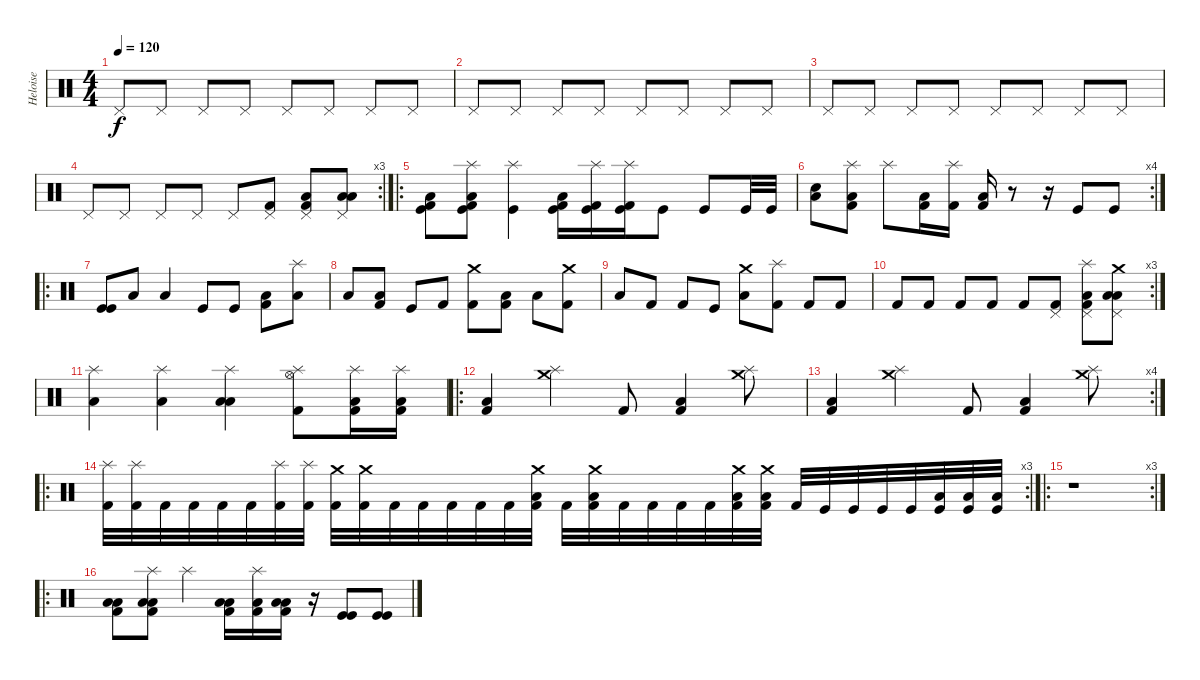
\track ("Heloise" "Heloise") {instrument percussion}
\staff {score}
\articulation defaults
\ts (4 4)
\tempo 120
\clef neutral
\ks c "Pedal Hi-Hat (hit)".8{dy f} "Pedal Hi-Hat (hit)".8 "Pedal Hi-Hat (hit)".8 "Pedal Hi-Hat (hit)".8 "Pedal Hi-Hat (hit)".8 "Pedal Hi-Hat (hit)".8 "Pedal Hi-Hat (hit)".8 "Pedal Hi-Hat (hit)".8
|
"Pedal Hi-Hat (hit)".8 "Pedal Hi-Hat (hit)".8 "Pedal Hi-Hat (hit)".8 "Pedal Hi-Hat (hit)".8 "Pedal Hi-Hat (hit)".8 "Pedal Hi-Hat (hit)".8 "Pedal Hi-Hat (hit)".8 "Pedal Hi-Hat (hit)".8 |
"Pedal Hi-Hat (hit)".8 "Pedal Hi-Hat (hit)".8 "Pedal Hi-Hat (hit)".8 "Pedal Hi-Hat (hit)".8 "Pedal Hi-Hat (hit)".8 "Pedal Hi-Hat (hit)".8 "Pedal Hi-Hat (hit)".8 "Pedal Hi-Hat (hit)".8 |
\rc 3 "Pedal Hi-Hat (hit)".8 "Pedal Hi-Hat (hit)".8 "Pedal Hi-Hat (hit)".8 "Pedal Hi-Hat (hit)".8 "Pedal Hi-Hat (hit)".8
("Kick (hit) 2" "Pedal Hi-Hat (hit)").8 ("Pedal Hi-Hat (hit)" "Low Tom (hit)" "Kick (hit) 2").8 ("Low Tom (hit)" "Low Tom (hit)" "Pedal Hi-Hat (hit)").8 |
\ro
("Low Tom (hit)" "Kick (hit) 2" "Kick (hit)").8 ("Splash (hit)" "Low Tom (hit)" "Kick (hit) 2" "Kick (hit)").8 ("Splash (hit)" "Kick (hit)").4 ("Low Tom (hit)" "Kick (hit) 2" "Kick (hit)").16 ("Splash (hit)" "Kick (hit) 2" "Kick (hit)").16 ("Splash (hit)" "Kick (hit) 2" "Kick (hit)").16 "Kick (hit)".8 "Kick (hit)".8 "Kick (hit)".32 "Kick (hit)".32 |
\rc 4
("Low Tom (hit)" "Snare (hit)").8 ("Splash (hit)" "Low Tom (hit)" "Kick (hit) 2").8 "Splash (hit)".8 ("Low Tom (hit)" "Kick (hit) 2").16 ("Splash (hit)" "Kick (hit) 2").16 ("Low Tom (hit)" "Kick (hit) 2").16 r.8 r.16 "Kick (hit)".8 "Kick (hit)".8 |
\ro
("Kick (hit)" "Kick (hit)").8 "Low Tom (hit)".8 "Low Tom (hit)".4 "Kick (hit)".8 "Kick (hit)".8 ("Kick (hit) 2" "Low Tom (hit)").8 ("Low Tom (hit)" "Splash (hit)").8 |
"Low Tom (hit)".8 ("Low Tom (hit)" "Kick (hit) 2").8 "Kick (hit)".8 "Kick (hit) 2".8 ("Crash medium (hit)" "Kick (hit) 2").8 ("Low Tom (hit)" "Kick (hit) 2").8 "Low Tom (hit)".8 ("Crash medium (hit)" "Kick (hit) 2").8 |
"Low Tom (hit)".8 "Kick (hit) 2".8 "Kick (hit) 2".8 "Kick (hit)".8 ("Low Tom (hit)" "Crash medium (hit)").8 ("Kick (hit) 2" "Splash (hit)").8 "Kick (hit) 2".8 "Kick (hit) 2".8 |
\rc 3 "Kick (hit) 2".8 "Kick (hit) 2".8 "Kick (hit) 2".8 "Kick (hit) 2".8 "Kick (hit) 2".8
("Kick (hit) 2" "Pedal Hi-Hat (hit)").8 ("Splash (hit)" "Pedal Hi-Hat (hit)" "Low Tom (hit)" "Kick (hit) 2").8 ("Crash medium (hit)" "Low Tom (hit)" "Low Tom (hit)" "Pedal Hi-Hat (hit)").8 |
("Splash (hit)" "Low Tom (hit)").4 ("Splash (hit)" "Low Tom (hit)").4 ("Splash (hit)" "Low Tom (hit)" "Low Tom (hit)").4 ("Hi-Hat (open)" "Kick (hit) 2" "Splash (hit)").8 ("Low Tom (hit)" "Kick (hit) 2" "Splash (hit)").16 ("Low Tom (hit)" "Kick (hit) 2" "Splash (hit)").16 |
\ro
("Kick (hit) 2" "Low Tom (hit)").4 ("Splash (hit)" "Crash medium (hit)").4 "Kick (hit) 2".8 ("Kick (hit) 2" "Low Tom (hit)").4 ("Splash (hit)" "Crash medium (hit)").8 |
\rc 4
("Kick (hit) 2" "Low Tom (hit)").4 ("Splash (hit)" "Crash medium (hit)").4 "Kick (hit) 2".8 ("Kick (hit) 2" "Low Tom (hit)").4 ("Splash (hit)" "Crash medium (hit)").8 |
\ro
\rc 3
("Splash (hit)" "Kick (hit) 2").32 ("Splash (hit)" "Kick (hit) 2").32 "Kick (hit) 2".32 "Kick (hit) 2".32 "Kick (hit) 2".32 "Kick (hit) 2".32 ("Splash (hit)" "Kick (hit) 2").32 ("Splash (hit)" "Kick (hit) 2").32 ("Crash medium (hit)" "Kick (hit) 2").32 ("Crash medium (hit)" "Kick (hit) 2").32 "Kick (hit) 2".32 "Kick (hit) 2".32 "Kick (hit) 2".32 "Kick (hit) 2".32 "Kick (hit) 2".32 ("Crash medium (hit)" "Low Tom (hit)" "Kick (hit) 2").32 "Kick (hit) 2".32 ("Crash medium (hit)" "Low Tom (hit)" "Kick (hit) 2").32 "Kick (hit) 2".32 "Kick (hit) 2".32 "Kick (hit) 2".32 "Kick (hit) 2".32 ("Crash medium (hit)" "Low Tom (hit)" "Kick (hit) 2").32 ("Crash medium (hit)" "Low Tom (hit)" "Kick (hit) 2").32 "Kick (hit) 2".32 "Kick (hit)".32 "Kick (hit)".32 "Kick (hit)".32 "Kick (hit)".32 ("Low Tom (hit)" "Kick (hit)").32 ("Low Tom (hit)" "Kick (hit)").32 ("Low Tom (hit)" "Kick (hit)").32 |
\ro
\rc 3
r.1 |
\ro
("Low Tom (hit)" "Low Tom (hit)" "Kick (hit) 2").8 ("Splash (hit)" "Kick (hit) 2" "Low Tom (hit)" "Low Tom (hit)").8 "Splash (hit)".4 ("Low Tom (hit)" "Low Tom (hit)" "Kick (hit) 2").16 ("Splash (hit)" "Low Tom (hit)" "Kick (hit) 2").16 ("Kick (hit) 2" "Low Tom (hit)" "Low Tom (hit)").16 r.16 ("Kick (hit)" "Kick (hit)").8 ("Kick (hit)" "Kick (hit)").8
